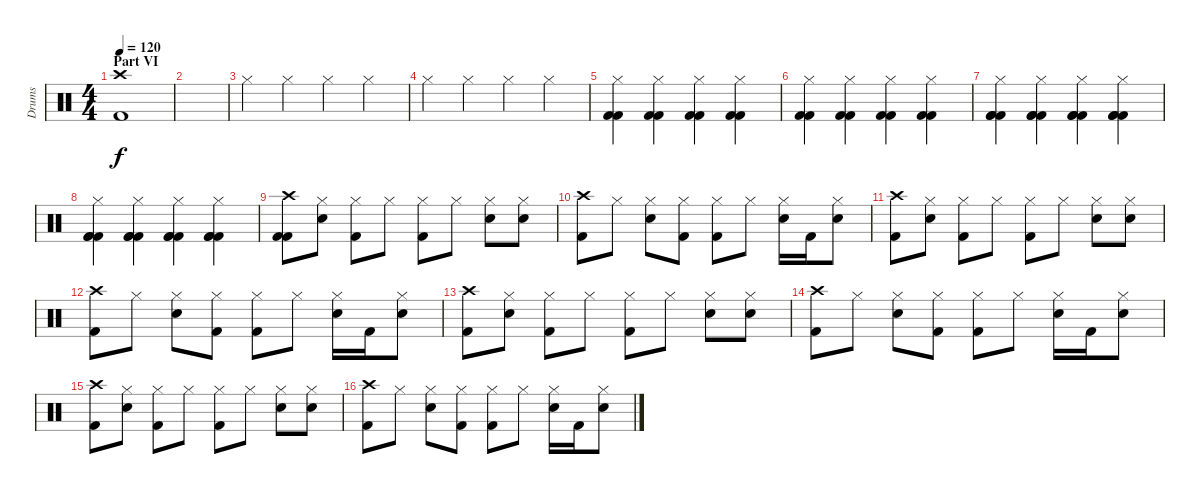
\track ("Drums" "Drums") {instrument percussion}
\staff {score}
\articulation defaults
\ts (4 4)
\section ("" "Part VI")
\tempo 120
\clef neutral
\ks c
("Crash high (hit)" "Kick (hit) 2").1{dy f} |
|
"Hi-Hat (closed)".4 "Hi-Hat (closed)".4 "Hi-Hat (closed)".4 "Hi-Hat (closed)".4 |
"Hi-Hat (closed)".4 "Hi-Hat (closed)".4 "Hi-Hat (closed)".4 "Hi-Hat (closed)".4 |
("Hi-Hat (closed)" "Kick (hit) 2" "Kick (hit) 2").4 ("Hi-Hat (closed)" "Kick (hit) 2" "Kick (hit) 2").4 ("Hi-Hat (closed)" "Kick (hit) 2" "Kick (hit) 2").4 ("Hi-Hat (closed)" "Kick (hit) 2" "Kick (hit) 2").4 |
("Hi-Hat (closed)" "Kick (hit) 2" "Kick (hit) 2").4 ("Hi-Hat (closed)" "Kick (hit) 2" "Kick (hit) 2").4 ("Hi-Hat (closed)" "Kick (hit) 2" "Kick (hit) 2").4 ("Hi-Hat (closed)" "Kick (hit) 2" "Kick (hit) 2").4 |
("Hi-Hat (closed)" "Kick (hit) 2" "Kick (hit) 2" "Kick (hit) 2").4 ("Hi-Hat (closed)" "Kick (hit) 2" "Kick (hit) 2" "Kick (hit) 2").4 ("Hi-Hat (closed)" "Kick (hit) 2" "Kick (hit) 2" "Kick (hit) 2").4 ("Hi-Hat (closed)" "Kick (hit) 2" "Kick (hit) 2" "Kick (hit) 2").4 |
("Hi-Hat (closed)" "Kick (hit) 2" "Kick (hit) 2" "Kick (hit) 2").4 ("Hi-Hat (closed)" "Kick (hit) 2" "Kick (hit) 2" "Kick (hit) 2").4 ("Hi-Hat (closed)" "Kick (hit) 2" "Kick (hit) 2" "Kick (hit) 2").4 ("Hi-Hat (closed)" "Kick (hit) 2" "Kick (hit) 2" "Kick (hit) 2").4 |
("Crash high (hit)" "Kick (hit) 2" "Kick (hit) 2").8 ("Hi-Hat (closed)" "Snare (hit) 2").8 ("Hi-Hat (closed)" "Kick (hit) 2").8 "Hi-Hat (closed)".8 ("Hi-Hat (closed)" "Kick (hit) 2").8 "Hi-Hat (closed)".8 ("Hi-Hat (closed)" "Snare (hit) 2").8 ("Hi-Hat (closed)" "Snare (hit) 2").8 |
("Crash high (hit)" "Kick (hit) 2").8 "Hi-Hat (closed)".8 ("Hi-Hat (closed)" "Snare (hit) 2").8 ("Hi-Hat (closed)" "Kick (hit) 2").8 ("Hi-Hat (closed)" "Kick (hit) 2").8 "Hi-Hat (closed)".8 ("Hi-Hat (closed)" "Snare (hit) 2").16 "Kick (hit) 2".16 ("Hi-Hat (closed)" "Snare (hit) 2").8 |
("Crash high (hit)" "Kick (hit) 2").8 ("Hi-Hat (closed)" "Snare (hit) 2").8 ("Hi-Hat (closed)" "Kick (hit) 2").8 "Hi-Hat (closed)".8 ("Hi-Hat (closed)" "Kick (hit) 2").8 "Hi-Hat (closed)".8 ("Hi-Hat (closed)" "Snare (hit) 2").8 ("Hi-Hat (closed)" "Snare (hit) 2").8 |
("Crash high (hit)" "Kick (hit) 2").8 "Hi-Hat (closed)".8 ("Hi-Hat (closed)" "Snare (hit) 2").8 ("Hi-Hat (closed)" "Kick (hit) 2").8 ("Hi-Hat (closed)" "Kick (hit) 2").8 "Hi-Hat (closed)".8 ("Hi-Hat (closed)" "Snare (hit) 2").16 "Kick (hit) 2".16 ("Hi-Hat (closed)" "Snare (hit) 2").8 |
("Crash high (hit)" "Kick (hit) 2").8 ("Hi-Hat (closed)" "Snare (hit) 2").8 ("Hi-Hat (closed)" "Kick (hit) 2").8 "Hi-Hat (closed)".8 ("Hi-Hat (closed)" "Kick (hit) 2").8 "Hi-Hat (closed)".8 ("Hi-Hat (closed)" "Snare (hit) 2").8 ("Hi-Hat (closed)" "Snare (hit) 2").8 |
("Crash high (hit)" "Kick (hit) 2").8 "Hi-Hat (closed)".8 ("Hi-Hat (closed)" "Snare (hit) 2").8 ("Hi-Hat (closed)" "Kick (hit) 2").8 ("Hi-Hat (closed)" "Kick (hit) 2").8 "Hi-Hat (closed)".8 ("Hi-Hat (closed)" "Snare (hit) 2").16 "Kick (hit) 2".16 ("Hi-Hat (closed)" "Snare (hit) 2").8 |
("Crash high (hit)" "Kick (hit) 2").8 ("Hi-Hat (closed)" "Snare (hit) 2").8 ("Hi-Hat (closed)" "Kick (hit) 2").8 "Hi-Hat (closed)".8 ("Hi-Hat (closed)" "Kick (hit) 2").8 "Hi-Hat (closed)".8 ("Hi-Hat (closed)" "Snare (hit) 2").8 ("Hi-Hat (closed)" "Snare (hit) 2").8 |
("Crash high (hit)" "Kick (hit) 2").8 "Hi-Hat (closed)".8 ("Hi-Hat (closed)" "Snare (hit) 2").8 ("Hi-Hat (closed)" "Kick (hit) 2").8 ("Hi-Hat (closed)" "Kick (hit) 2").8 "Hi-Hat (closed)".8 ("Hi-Hat (closed)" "Snare (hit) 2").16 "Kick (hit) 2".16 ("Hi-Hat (closed)" "Snare (hit) 2").8
